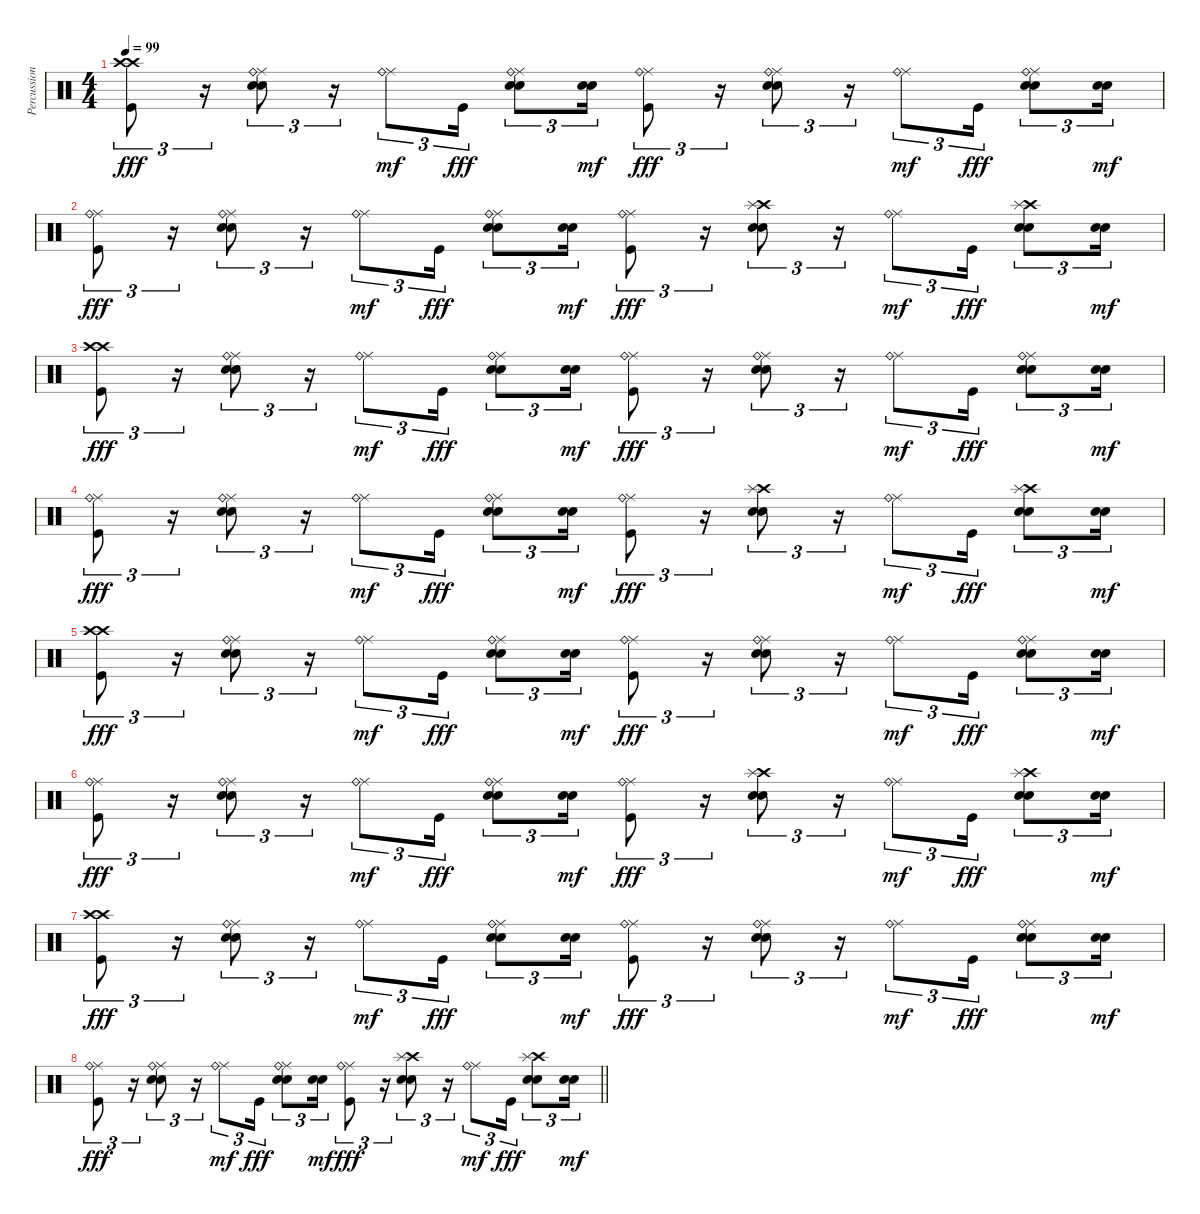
\track ("Percussion" "Percussion") {instrument percussion}
\staff {score}
\articulation defaults
\ts (4 4)
\tempo 99
\clef neutral
\ks c
("Crash high (hit)" "Crash high (hit)" "Kick (hit)").8{tu (3 2) dy fff} r.16{tu (3 2)} ("Ride (middle)" "Ride (bell)" "Snare (hit) 2" "Electric Snare (hit)").8{tu (3 2)} r.16{tu (3 2)} ("Ride (middle)" "Ride (bell)").8{tu (3 2) dy mf} "Kick (hit)".16{tu (3 2) dy fff} ("Ride (middle)" "Ride (bell)" "Snare (hit) 2" "Electric Snare (hit)").8{tu (3 2)} ("Snare (hit) 2" "Electric Snare (hit)").16{tu (3 2) dy mf} ("Ride (middle)" "Ride (bell)" "Kick (hit)").8{tu (3 2) dy fff} r.16{tu (3 2)} ("Ride (middle)" "Ride (bell)" "Snare (hit) 2" "Electric Snare (hit)").8{tu (3 2)} r.16{tu (3 2)} ("Ride (middle)" "Ride (bell)").8{tu (3 2) dy mf} "Kick (hit)".16{tu (3 2) dy fff} ("Ride (middle)" "Ride (bell)" "Snare (hit) 2" "Electric Snare (hit)").8{tu (3 2)} ("Snare (hit) 2" "Electric Snare (hit)").16{tu (3 2) dy mf} |
("Ride (middle)" "Ride (bell)" "Kick (hit)").8{tu (3 2) dy fff} r.16{tu (3 2)} ("Ride (middle)" "Ride (bell)" "Snare (hit) 2" "Electric Snare (hit)").8{tu (3 2)} r.16{tu (3 2)} ("Ride (middle)" "Ride (bell)").8{tu (3 2) dy mf} "Kick (hit)".16{tu (3 2) dy fff} ("Ride (middle)" "Ride (bell)" "Snare (hit) 2" "Electric Snare (hit)").8{tu (3 2)} ("Snare (hit) 2" "Electric Snare (hit)").16{tu (3 2) dy mf} ("Ride (middle)" "Ride (bell)" "Kick (hit)").8{tu (3 2) dy fff} r.16{tu (3 2)} ("Crash high (hit)" "Splash (hit)" "Snare (hit) 2" "Electric Snare (hit)").8{tu (3 2)} r.16{tu (3 2)} ("Ride (middle)" "Ride (bell)").8{tu (3 2) dy mf} "Kick (hit)".16{tu (3 2) dy fff} ("Crash high (hit)" "Splash (hit)" "Snare (hit) 2" "Electric Snare (hit)").8{tu (3 2)} ("Snare (hit) 2" "Electric Snare (hit)").16{tu (3 2) dy mf} |
("Crash high (hit)" "Crash high (hit)" "Kick (hit)").8{tu (3 2) dy fff} r.16{tu (3 2)} ("Ride (middle)" "Ride (bell)" "Snare (hit) 2" "Electric Snare (hit)").8{tu (3 2)} r.16{tu (3 2)} ("Ride (middle)" "Ride (bell)").8{tu (3 2) dy mf} "Kick (hit)".16{tu (3 2) dy fff} ("Ride (middle)" "Ride (bell)" "Snare (hit) 2" "Electric Snare (hit)").8{tu (3 2)} ("Snare (hit) 2" "Electric Snare (hit)").16{tu (3 2) dy mf} ("Ride (middle)" "Ride (bell)" "Kick (hit)").8{tu (3 2) dy fff} r.16{tu (3 2)} ("Ride (middle)" "Ride (bell)" "Snare (hit) 2" "Electric Snare (hit)").8{tu (3 2)} r.16{tu (3 2)} ("Ride (middle)" "Ride (bell)").8{tu (3 2) dy mf} "Kick (hit)".16{tu (3 2) dy fff} ("Ride (middle)" "Ride (bell)" "Snare (hit) 2" "Electric Snare (hit)").8{tu (3 2)} ("Snare (hit) 2" "Electric Snare (hit)").16{tu (3 2) dy mf} |
("Ride (middle)" "Ride (bell)" "Kick (hit)").8{tu (3 2) dy fff} r.16{tu (3 2)} ("Ride (middle)" "Ride (bell)" "Snare (hit) 2" "Electric Snare (hit)").8{tu (3 2)} r.16{tu (3 2)} ("Ride (middle)" "Ride (bell)").8{tu (3 2) dy mf} "Kick (hit)".16{tu (3 2) dy fff} ("Ride (middle)" "Ride (bell)" "Snare (hit) 2" "Electric Snare (hit)").8{tu (3 2)} ("Snare (hit) 2" "Electric Snare (hit)").16{tu (3 2) dy mf} ("Ride (middle)" "Ride (bell)" "Kick (hit)").8{tu (3 2) dy fff} r.16{tu (3 2)} ("Crash high (hit)" "Splash (hit)" "Snare (hit) 2" "Electric Snare (hit)").8{tu (3 2)} r.16{tu (3 2)} ("Ride (middle)" "Ride (bell)").8{tu (3 2) dy mf} "Kick (hit)".16{tu (3 2) dy fff} ("Crash high (hit)" "Splash (hit)" "Snare (hit) 2" "Electric Snare (hit)").8{tu (3 2)} ("Snare (hit) 2" "Electric Snare (hit)").16{tu (3 2) dy mf} |
("Crash high (hit)" "Crash high (hit)" "Kick (hit)").8{tu (3 2) dy fff} r.16{tu (3 2)} ("Ride (middle)" "Ride (bell)" "Snare (hit) 2" "Electric Snare (hit)").8{tu (3 2)} r.16{tu (3 2)} ("Ride (middle)" "Ride (bell)").8{tu (3 2) dy mf} "Kick (hit)".16{tu (3 2) dy fff} ("Ride (middle)" "Ride (bell)" "Snare (hit) 2" "Electric Snare (hit)").8{tu (3 2)} ("Snare (hit) 2" "Electric Snare (hit)").16{tu (3 2) dy mf} ("Ride (middle)" "Ride (bell)" "Kick (hit)").8{tu (3 2) dy fff} r.16{tu (3 2)} ("Ride (middle)" "Ride (bell)" "Snare (hit) 2" "Electric Snare (hit)").8{tu (3 2)} r.16{tu (3 2)} ("Ride (middle)" "Ride (bell)").8{tu (3 2) dy mf} "Kick (hit)".16{tu (3 2) dy fff} ("Ride (middle)" "Ride (bell)" "Snare (hit) 2" "Electric Snare (hit)").8{tu (3 2)} ("Snare (hit) 2" "Electric Snare (hit)").16{tu (3 2) dy mf} |
("Ride (middle)" "Ride (bell)" "Kick (hit)").8{tu (3 2) dy fff} r.16{tu (3 2)} ("Ride (middle)" "Ride (bell)" "Snare (hit) 2" "Electric Snare (hit)").8{tu (3 2)} r.16{tu (3 2)} ("Ride (middle)" "Ride (bell)").8{tu (3 2) dy mf} "Kick (hit)".16{tu (3 2) dy fff} ("Ride (middle)" "Ride (bell)" "Snare (hit) 2" "Electric Snare (hit)").8{tu (3 2)} ("Snare (hit) 2" "Electric Snare (hit)").16{tu (3 2) dy mf} ("Ride (middle)" "Ride (bell)" "Kick (hit)").8{tu (3 2) dy fff} r.16{tu (3 2)} ("Crash high (hit)" "Splash (hit)" "Snare (hit) 2" "Electric Snare (hit)").8{tu (3 2)} r.16{tu (3 2)} ("Ride (middle)" "Ride (bell)").8{tu (3 2) dy mf} "Kick (hit)".16{tu (3 2) dy fff} ("Crash high (hit)" "Splash (hit)" "Snare (hit) 2" "Electric Snare (hit)").8{tu (3 2)} ("Snare (hit) 2" "Electric Snare (hit)").16{tu (3 2) dy mf} |
("Crash high (hit)" "Crash high (hit)" "Kick (hit)").8{tu (3 2) dy fff} r.16{tu (3 2)} ("Ride (middle)" "Ride (bell)" "Snare (hit) 2" "Electric Snare (hit)").8{tu (3 2)} r.16{tu (3 2)} ("Ride (middle)" "Ride (bell)").8{tu (3 2) dy mf} "Kick (hit)".16{tu (3 2) dy fff} ("Ride (middle)" "Ride (bell)" "Snare (hit) 2" "Electric Snare (hit)").8{tu (3 2)} ("Snare (hit) 2" "Electric Snare (hit)").16{tu (3 2) dy mf} ("Ride (middle)" "Ride (bell)" "Kick (hit)").8{tu (3 2) dy fff} r.16{tu (3 2)} ("Ride (middle)" "Ride (bell)" "Snare (hit) 2" "Electric Snare (hit)").8{tu (3 2)} r.16{tu (3 2)} ("Ride (middle)" "Ride (bell)").8{tu (3 2) dy mf} "Kick (hit)".16{tu (3 2) dy fff} ("Ride (middle)" "Ride (bell)" "Snare (hit) 2" "Electric Snare (hit)").8{tu (3 2)} ("Snare (hit) 2" "Electric Snare (hit)").16{tu (3 2) dy mf} |
\barLineRight lightlight
("Ride (middle)" "Ride (bell)" "Kick (hit)").8{tu (3 2) dy fff} r.16{tu (3 2)} ("Ride (middle)" "Ride (bell)" "Snare (hit) 2" "Electric Snare (hit)").8{tu (3 2)} r.16{tu (3 2)} ("Ride (middle)" "Ride (bell)").8{tu (3 2) dy mf} "Kick (hit)".16{tu (3 2) dy fff} ("Ride (middle)" "Ride (bell)" "Snare (hit) 2" "Electric Snare (hit)").8{tu (3 2)} ("Snare (hit) 2" "Electric Snare (hit)").16{tu (3 2) dy mf} ("Ride (middle)" "Ride (bell)" "Kick (hit)").8{tu (3 2) dy fff} r.16{tu (3 2)} ("Crash high (hit)" "Splash (hit)" "Snare (hit) 2" "Electric Snare (hit)").8{tu (3 2)} r.16{tu (3 2)} ("Ride (middle)" "Ride (bell)").8{tu (3 2) dy mf} "Kick (hit)".16{tu (3 2) dy fff} ("Crash high (hit)" "Splash (hit)" "Snare (hit) 2" "Electric Snare (hit)").8{tu (3 2)} ("Snare (hit) 2" "Electric Snare (hit)").16{tu (3 2) dy mf}
